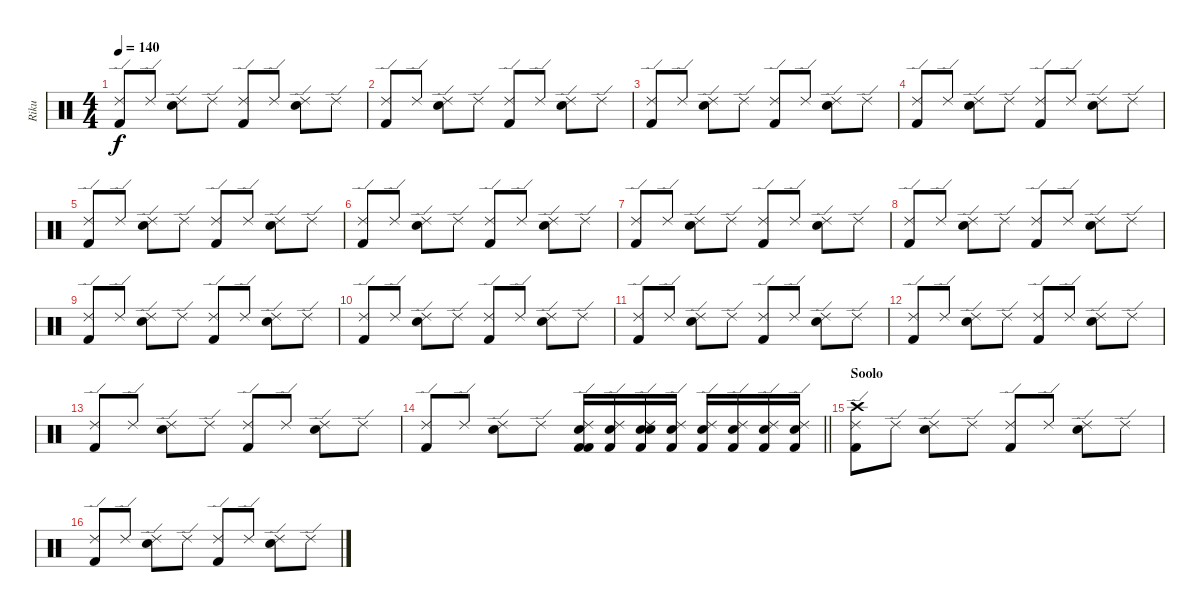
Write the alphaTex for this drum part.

\track ("Riku" "Riku") {instrument percussion}
\staff {score}
\articulation defaults
\ts (4 4)
\tempo 140
\clef neutral
\ks c
("Kick (hit) 2" "Ride (edge) 2").8{dy f} "Ride (edge) 2".8 ("Electric Snare (hit)" "Ride (edge) 2").8 "Ride (edge) 2".8 ("Kick (hit) 2" "Ride (edge) 2").8 "Ride (edge) 2".8 ("Electric Snare (hit)" "Ride (edge) 2").8 "Ride (edge) 2".8 |
("Kick (hit) 2" "Ride (edge) 2").8 "Ride (edge) 2".8 ("Electric Snare (hit)" "Ride (edge) 2").8 "Ride (edge) 2".8 ("Kick (hit) 2" "Ride (edge) 2").8 "Ride (edge) 2".8 ("Electric Snare (hit)" "Ride (edge) 2").8 "Ride (edge) 2".8 |
("Kick (hit) 2" "Ride (edge) 2").8 "Ride (edge) 2".8 ("Electric Snare (hit)" "Ride (edge) 2").8 "Ride (edge) 2".8 ("Kick (hit) 2" "Ride (edge) 2").8 "Ride (edge) 2".8 ("Electric Snare (hit)" "Ride (edge) 2").8 "Ride (edge) 2".8 |
("Kick (hit) 2" "Ride (edge) 2").8 "Ride (edge) 2".8 ("Electric Snare (hit)" "Ride (edge) 2").8 "Ride (edge) 2".8 ("Kick (hit) 2" "Ride (edge) 2").8 "Ride (edge) 2".8 ("Electric Snare (hit)" "Ride (edge) 2").8 "Ride (edge) 2".8 |
("Kick (hit) 2" "Ride (edge) 2").8 "Ride (edge) 2".8 ("Electric Snare (hit)" "Ride (edge) 2").8 "Ride (edge) 2".8 ("Kick (hit) 2" "Ride (edge) 2").8 "Ride (edge) 2".8 ("Electric Snare (hit)" "Ride (edge) 2").8 "Ride (edge) 2".8 |
("Kick (hit) 2" "Ride (edge) 2").8 "Ride (edge) 2".8 ("Electric Snare (hit)" "Ride (edge) 2").8 "Ride (edge) 2".8 ("Kick (hit) 2" "Ride (edge) 2").8 "Ride (edge) 2".8 ("Electric Snare (hit)" "Ride (edge) 2").8 "Ride (edge) 2".8 |
("Kick (hit) 2" "Ride (edge) 2").8 "Ride (edge) 2".8 ("Electric Snare (hit)" "Ride (edge) 2").8 "Ride (edge) 2".8 ("Kick (hit) 2" "Ride (edge) 2").8 "Ride (edge) 2".8 ("Electric Snare (hit)" "Ride (edge) 2").8 "Ride (edge) 2".8 |
("Kick (hit) 2" "Ride (edge) 2").8 "Ride (edge) 2".8 ("Electric Snare (hit)" "Ride (edge) 2").8 "Ride (edge) 2".8 ("Kick (hit) 2" "Ride (edge) 2").8 "Ride (edge) 2".8 ("Electric Snare (hit)" "Ride (edge) 2").8 "Ride (edge) 2".8 |
("Kick (hit) 2" "Ride (edge) 2").8 "Ride (edge) 2".8 ("Electric Snare (hit)" "Ride (edge) 2").8 "Ride (edge) 2".8 ("Kick (hit) 2" "Ride (edge) 2").8 "Ride (edge) 2".8 ("Electric Snare (hit)" "Ride (edge) 2").8 "Ride (edge) 2".8 |
("Kick (hit) 2" "Ride (edge) 2").8 "Ride (edge) 2".8 ("Electric Snare (hit)" "Ride (edge) 2").8 "Ride (edge) 2".8 ("Kick (hit) 2" "Ride (edge) 2").8 "Ride (edge) 2".8 ("Electric Snare (hit)" "Ride (edge) 2").8 "Ride (edge) 2".8 |
("Kick (hit) 2" "Ride (edge) 2").8 "Ride (edge) 2".8 ("Electric Snare (hit)" "Ride (edge) 2").8 "Ride (edge) 2".8 ("Kick (hit) 2" "Ride (edge) 2").8 "Ride (edge) 2".8 ("Electric Snare (hit)" "Ride (edge) 2").8 "Ride (edge) 2".8 |
("Kick (hit) 2" "Ride (edge) 2").8 "Ride (edge) 2".8 ("Electric Snare (hit)" "Ride (edge) 2").8 "Ride (edge) 2".8 ("Kick (hit) 2" "Ride (edge) 2").8 "Ride (edge) 2".8 ("Electric Snare (hit)" "Ride (edge) 2").8 "Ride (edge) 2".8 |
("Kick (hit) 2" "Ride (edge) 2").8 "Ride (edge) 2".8 ("Electric Snare (hit)" "Ride (edge) 2").8 "Ride (edge) 2".8 ("Kick (hit) 2" "Ride (edge) 2").8 "Ride (edge) 2".8 ("Electric Snare (hit)" "Ride (edge) 2").8 "Ride (edge) 2".8 |
\barLineRight lightlight
("Kick (hit) 2" "Ride (edge) 2").8 "Ride (edge) 2".8 ("Electric Snare (hit)" "Ride (edge) 2").8 "Ride (edge) 2".8 ("Electric Snare (hit)" "Kick (hit) 2" "Ride (edge) 2" "Kick (hit) 2").16 ("Electric Snare (hit)" "Ride (edge) 2" "Kick (hit) 2").16 ("Snare (hit) 2" "Electric Snare (hit)" "Ride (edge) 2" "Kick (hit) 2").16 ("Snare (hit) 2" "Ride (edge) 2" "Kick (hit) 2").16 ("Electric Snare (hit)" "Ride (edge) 2" "Kick (hit) 2").16 ("Electric Snare (hit)" "Ride (edge) 2" "Kick (hit) 2").16 ("Snare (hit) 2" "Ride (edge) 2" "Kick (hit) 2").16 ("Snare (hit) 2" "Ride (edge) 2" "Kick (hit) 2").16 |
\section ("" "Soolo")
("Kick (hit) 2" "Ride (edge) 2" "Crash high (hit)").8 "Ride (edge) 2".8 ("Electric Snare (hit)" "Ride (edge) 2").8 "Ride (edge) 2".8 ("Kick (hit) 2" "Ride (edge) 2").8 "Ride (edge) 2".8 ("Electric Snare (hit)" "Ride (edge) 2").8 "Ride (edge) 2".8 |
("Kick (hit) 2" "Ride (edge) 2").8 "Ride (edge) 2".8 ("Electric Snare (hit)" "Ride (edge) 2").8 "Ride (edge) 2".8 ("Kick (hit) 2" "Ride (edge) 2").8 "Ride (edge) 2".8 ("Electric Snare (hit)" "Ride (edge) 2").8 "Ride (edge) 2".8
